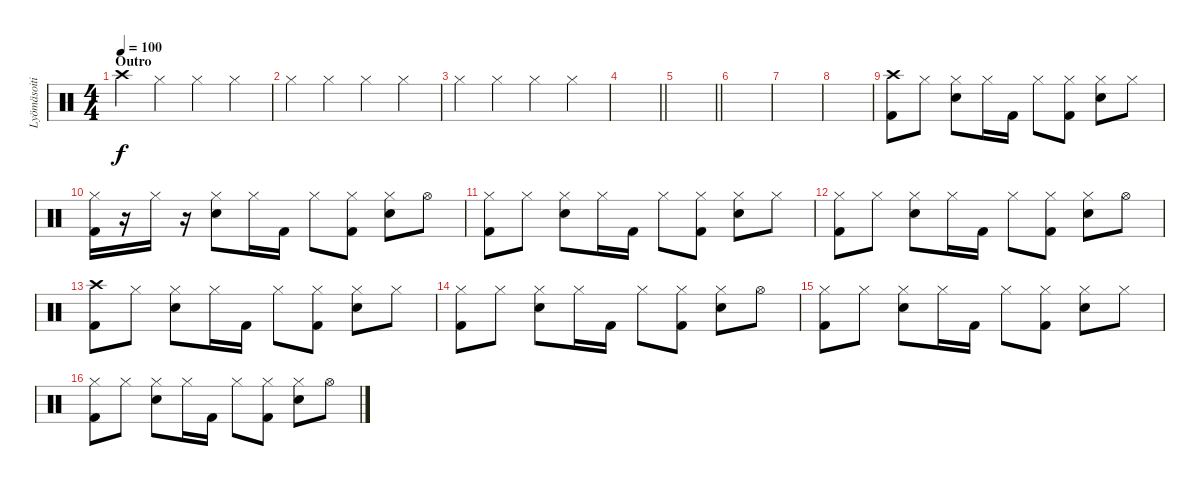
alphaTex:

\track ("Lyömäsoitin" "Lyömäsoiti") {instrument percussion}
\staff {score}
\articulation defaults
\ts (4 4)
\section ("" "Outro")
\tempo 100
\clef neutral
\ks c "Crash high (hit)".4{dy f} "Hi-Hat (closed)".4 "Hi-Hat (closed)".4 "Hi-Hat (closed)".4
|
"Hi-Hat (closed)".4 "Hi-Hat (closed)".4 "Hi-Hat (closed)".4 "Hi-Hat (closed)".4 |
"Hi-Hat (closed)".4 "Hi-Hat (closed)".4 "Hi-Hat (closed)".4 "Hi-Hat (closed)".4 |
\barLineRight lightlight
|
\barLineRight lightlight
|
|
|
|
("Crash high (hit)" "Kick (hit) 2").8 "Hi-Hat (closed)".8 ("Hi-Hat (closed)" "Snare (hit) 2").8 "Hi-Hat (closed)".16 "Kick (hit) 2".16 "Hi-Hat (closed)".8 ("Hi-Hat (closed)" "Kick (hit) 2").8 ("Hi-Hat (closed)" "Snare (hit) 2").8 "Hi-Hat (closed)".8 |
("Hi-Hat (closed)" "Kick (hit) 2").16 r.16 "Hi-Hat (closed)".16 r.16 ("Hi-Hat (closed)" "Snare (hit) 2").8 "Hi-Hat (closed)".16 "Kick (hit) 2".16 "Hi-Hat (closed)".8 ("Hi-Hat (closed)" "Kick (hit) 2").8 ("Hi-Hat (closed)" "Snare (hit) 2").8 "Hi-Hat (open)".8 |
("Hi-Hat (closed)" "Kick (hit) 2").8 "Hi-Hat (closed)".8 ("Hi-Hat (closed)" "Snare (hit) 2").8 "Hi-Hat (closed)".16 "Kick (hit) 2".16 "Hi-Hat (closed)".8 ("Hi-Hat (closed)" "Kick (hit) 2").8 ("Hi-Hat (closed)" "Snare (hit) 2").8 "Hi-Hat (closed)".8 |
("Hi-Hat (closed)" "Kick (hit) 2").8 "Hi-Hat (closed)".8 ("Hi-Hat (closed)" "Snare (hit) 2").8 "Hi-Hat (closed)".16 "Kick (hit) 2".16 "Hi-Hat (closed)".8 ("Hi-Hat (closed)" "Kick (hit) 2").8 ("Hi-Hat (closed)" "Snare (hit) 2").8 "Hi-Hat (open)".8 |
("Crash high (hit)" "Kick (hit) 2").8 "Hi-Hat (closed)".8 ("Hi-Hat (closed)" "Snare (hit) 2").8 "Hi-Hat (closed)".16 "Kick (hit) 2".16 "Hi-Hat (closed)".8 ("Hi-Hat (closed)" "Kick (hit) 2").8 ("Hi-Hat (closed)" "Snare (hit) 2").8 "Hi-Hat (closed)".8 |
("Hi-Hat (closed)" "Kick (hit) 2").8 "Hi-Hat (closed)".8 ("Hi-Hat (closed)" "Snare (hit) 2").8 "Hi-Hat (closed)".16 "Kick (hit) 2".16 "Hi-Hat (closed)".8 ("Hi-Hat (closed)" "Kick (hit) 2").8 ("Hi-Hat (closed)" "Snare (hit) 2").8 "Hi-Hat (open)".8 |
("Hi-Hat (closed)" "Kick (hit) 2").8 "Hi-Hat (closed)".8 ("Hi-Hat (closed)" "Snare (hit) 2").8 "Hi-Hat (closed)".16 "Kick (hit) 2".16 "Hi-Hat (closed)".8 ("Hi-Hat (closed)" "Kick (hit) 2").8 ("Hi-Hat (closed)" "Snare (hit) 2").8 "Hi-Hat (closed)".8 |
("Hi-Hat (closed)" "Kick (hit) 2").8 "Hi-Hat (closed)".8 ("Hi-Hat (closed)" "Snare (hit) 2").8 "Hi-Hat (closed)".16 "Kick (hit) 2".16 "Hi-Hat (closed)".8 ("Hi-Hat (closed)" "Kick (hit) 2").8 ("Hi-Hat (closed)" "Snare (hit) 2").8 "Hi-Hat (open)".8
